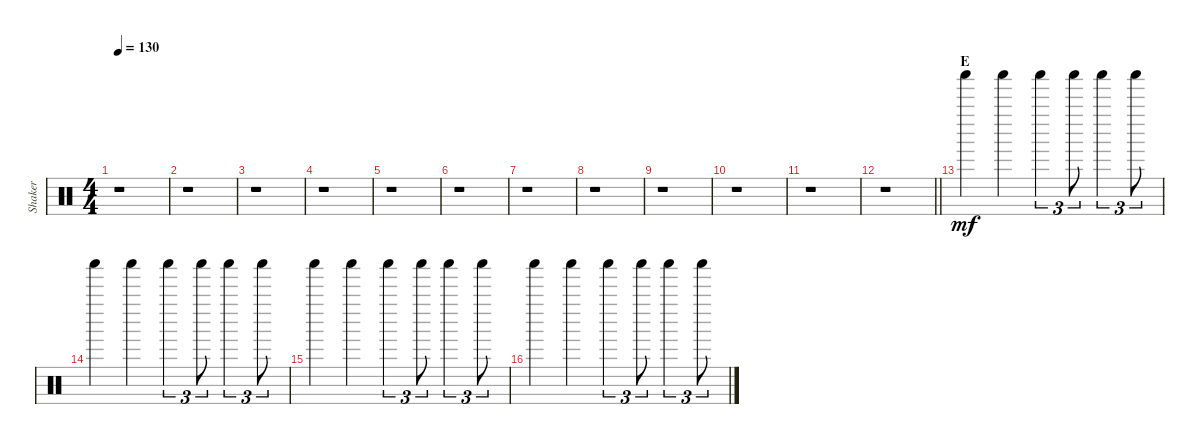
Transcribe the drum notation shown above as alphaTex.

\track ("Shaker" "Shaker") {instrument percussion}
\staff {score}
\articulation defaults
\ts (4 4)
\tempo 130
\clef neutral
\ks c
r.1{dy mf} |
r.1 |
r.1 |
r.1 |
r.1 |
r.1 |
r.1 |
r.1 |
r.1 |
r.1 |
r.1 |
\barLineRight lightlight
r.1 |
\section ("" "E")
"Shaker (hit)".4 "Shaker (hit)".4 "Shaker (hit)".4{tu (3 2)} "Shaker (hit)".8{tu (3 2)} "Shaker (hit)".4{tu (3 2)} "Shaker (hit)".8{tu (3 2)} |
"Shaker (hit)".4 "Shaker (hit)".4 "Shaker (hit)".4{tu (3 2)} "Shaker (hit)".8{tu (3 2)} "Shaker (hit)".4{tu (3 2)} "Shaker (hit)".8{tu (3 2)} |
"Shaker (hit)".4 "Shaker (hit)".4 "Shaker (hit)".4{tu (3 2)} "Shaker (hit)".8{tu (3 2)} "Shaker (hit)".4{tu (3 2)} "Shaker (hit)".8{tu (3 2)} |
"Shaker (hit)".4 "Shaker (hit)".4 "Shaker (hit)".4{tu (3 2)} "Shaker (hit)".8{tu (3 2)} "Shaker (hit)".4{tu (3 2)} "Shaker (hit)".8{tu (3 2)}
